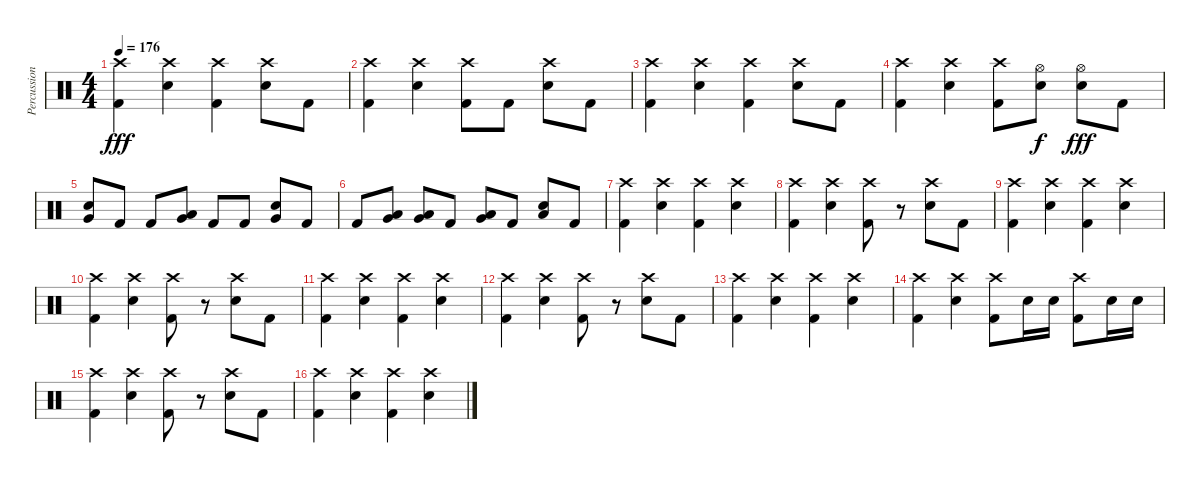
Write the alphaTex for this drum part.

\track ("Percussion" "Percussion") {instrument percussion}
\staff {score}
\articulation defaults
\ts (4 4)
\tempo 176
\clef neutral
\ks c
("Crash high (hit)" "Kick (hit) 2").4{dy fff} ("Crash high (hit)" "Snare (hit) 2").4 ("Crash high (hit)" "Kick (hit) 2").4 ("Crash high (hit)" "Snare (hit) 2").8 "Kick (hit) 2".8 |
("Crash high (hit)" "Kick (hit) 2").4 ("Crash high (hit)" "Snare (hit) 2").4 ("Crash high (hit)" "Kick (hit) 2").8 "Kick (hit) 2".8 ("Crash high (hit)" "Snare (hit) 2").8 "Kick (hit) 2".8 |
("Crash high (hit)" "Kick (hit) 2").4 ("Crash high (hit)" "Snare (hit) 2").4 ("Crash high (hit)" "Kick (hit) 2").4 ("Crash high (hit)" "Snare (hit) 2").8 "Kick (hit) 2".8 |
("Crash high (hit)" "Kick (hit) 2").4 ("Crash high (hit)" "Snare (hit) 2").4 ("Crash high (hit)" "Kick (hit) 2").8 ("Hi-Hat (open)" "Snare (hit) 2").8{dy f} ("Hi-Hat (open)" "Snare (hit) 2").8{dy fff} "Kick (hit) 2".8 |
("Snare (hit) 2" "Very Low Tom (hit)").8 "Kick (hit) 2".8 "Kick (hit) 2".8 ("Very Low Tom (hit)" "Low Floor Tom (hit)").8 "Kick (hit) 2".8 "Kick (hit) 2".8 ("Snare (hit) 2" "Very Low Tom (hit)").8 "Kick (hit) 2".8 |
"Kick (hit) 2".8 ("Very Low Tom (hit)" "Low Floor Tom (hit)").8 ("Very Low Tom (hit)" "Low Floor Tom (hit)").8 "Kick (hit) 2".8 ("Very Low Tom (hit)" "Low Floor Tom (hit)").8 "Kick (hit) 2".8 ("Snare (hit) 2" "Low Floor Tom (hit)").8 "Kick (hit) 2".8 |
("Crash high (hit)" "Kick (hit) 2").4 ("Crash high (hit)" "Snare (hit) 2").4 ("Crash high (hit)" "Kick (hit) 2").4 ("Crash high (hit)" "Snare (hit) 2").4 |
("Crash high (hit)" "Kick (hit) 2").4 ("Crash high (hit)" "Snare (hit) 2").4 ("Crash high (hit)" "Kick (hit) 2").8 r.8 ("Crash high (hit)" "Snare (hit) 2").8 "Kick (hit) 2".8 |
("Crash high (hit)" "Kick (hit) 2").4 ("Crash high (hit)" "Snare (hit) 2").4 ("Crash high (hit)" "Kick (hit) 2").4 ("Crash high (hit)" "Snare (hit) 2").4 |
("Crash high (hit)" "Kick (hit) 2").4 ("Crash high (hit)" "Snare (hit) 2").4 ("Crash high (hit)" "Kick (hit) 2").8 r.8 ("Crash high (hit)" "Snare (hit) 2").8 "Kick (hit) 2".8 |
("Crash high (hit)" "Kick (hit) 2").4 ("Crash high (hit)" "Snare (hit) 2").4 ("Crash high (hit)" "Kick (hit) 2").4 ("Crash high (hit)" "Snare (hit) 2").4 |
("Crash high (hit)" "Kick (hit) 2").4 ("Crash high (hit)" "Snare (hit) 2").4 ("Crash high (hit)" "Kick (hit) 2").8 r.8 ("Crash high (hit)" "Snare (hit) 2").8 "Kick (hit) 2".8 |
("Crash high (hit)" "Kick (hit) 2").4 ("Crash high (hit)" "Snare (hit) 2").4 ("Crash high (hit)" "Kick (hit) 2").4 ("Crash high (hit)" "Snare (hit) 2").4 |
("Crash high (hit)" "Kick (hit) 2").4 ("Crash high (hit)" "Snare (hit) 2").4 ("Crash high (hit)" "Kick (hit) 2").8 "Snare (hit) 2".16 "Snare (hit) 2".16 ("Crash high (hit)" "Kick (hit) 2").8 "Snare (hit) 2".16 "Snare (hit) 2".16 |
("Crash high (hit)" "Kick (hit) 2").4 ("Crash high (hit)" "Snare (hit) 2").4 ("Crash high (hit)" "Kick (hit) 2").8 r.8 ("Crash high (hit)" "Snare (hit) 2").8 "Kick (hit) 2".8 |
("Crash high (hit)" "Kick (hit) 2").4 ("Crash high (hit)" "Snare (hit) 2").4 ("Crash high (hit)" "Kick (hit) 2").4 ("Crash high (hit)" "Snare (hit) 2").4
